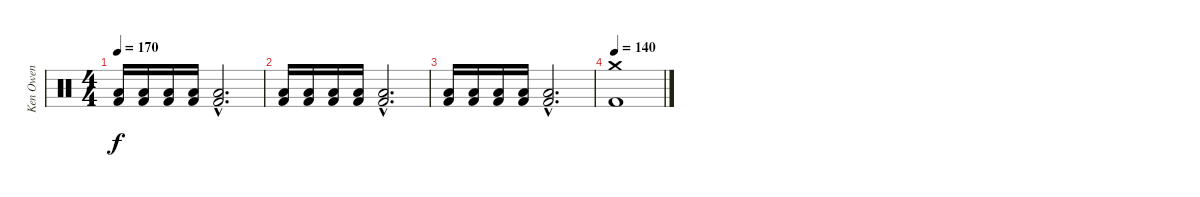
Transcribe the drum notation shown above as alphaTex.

\track ("Ken Owen" "Ken Owen") {instrument percussion}
\staff {score}
\articulation defaults
\ts (4 4)
\tempo 170
\clef neutral
\ks c
("Low Floor Tom (hit)" "Kick (hit) 2").16{dy f} ("Low Floor Tom (hit)" "Kick (hit) 2").16 ("Low Floor Tom (hit)" "Kick (hit) 2").16 ("Low Floor Tom (hit)" "Kick (hit) 2").16 ("Low Floor Tom (hit)"{hac} "Kick (hit) 2"{hac}).2{d} |
("Low Floor Tom (hit)" "Kick (hit) 2").16 ("Low Floor Tom (hit)" "Kick (hit) 2").16 ("Low Floor Tom (hit)" "Kick (hit) 2").16 ("Low Floor Tom (hit)" "Kick (hit) 2").16 ("Low Floor Tom (hit)"{hac} "Kick (hit) 2"{hac}).2{d} |
("Low Floor Tom (hit)" "Kick (hit) 2").16 ("Low Floor Tom (hit)" "Kick (hit) 2").16 ("Low Floor Tom (hit)" "Kick (hit) 2").16 ("Low Floor Tom (hit)" "Kick (hit) 2").16 ("Low Floor Tom (hit)"{hac} "Kick (hit) 2"{hac}).2{d} |
\tempo 140
("Crash medium (hit)" "Kick (hit) 2").1
